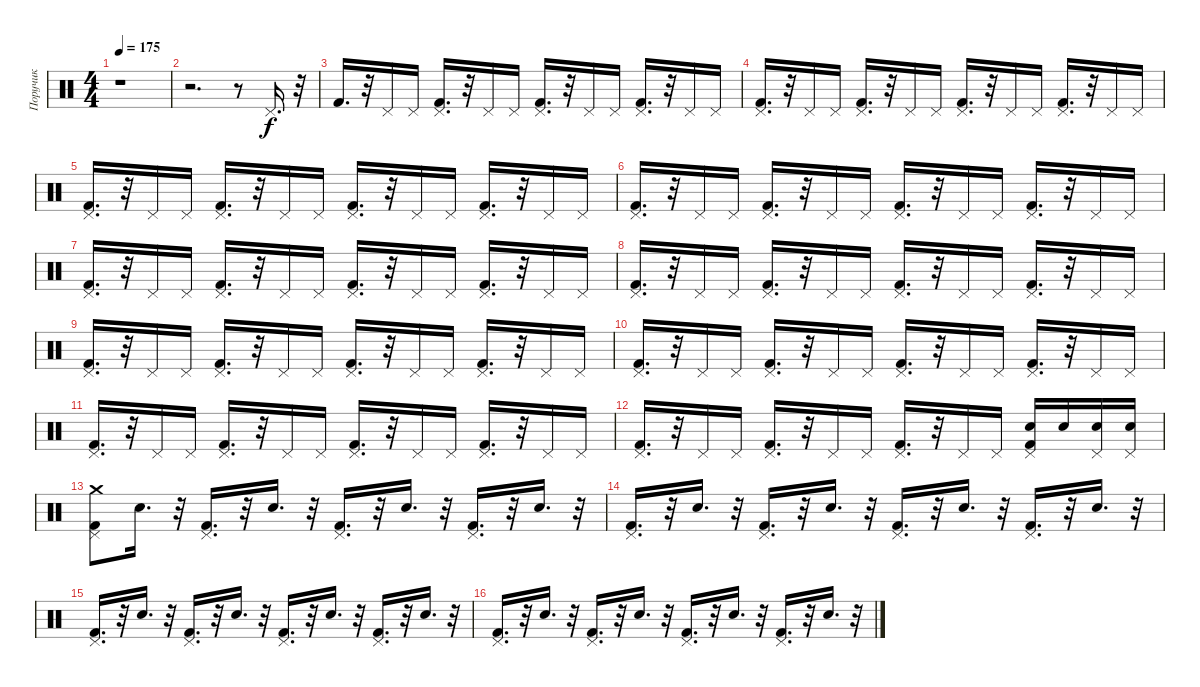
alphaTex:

\track ("Поручик" "Поручик") {instrument percussion}
\staff {score}
\articulation defaults
\ts (4 4)
\tempo 175
\clef neutral
\ks c
r.1{dy f} |
r.2{d} r.8 "Pedal Hi-Hat (hit)".16{d} r.32 |
"Kick (hit) 2".16{d} r.32 "Pedal Hi-Hat (hit)".16 "Pedal Hi-Hat (hit)".16 ("Pedal Hi-Hat (hit)" "Kick (hit) 2").16{d} r.32 "Pedal Hi-Hat (hit)".16 "Pedal Hi-Hat (hit)".16 ("Pedal Hi-Hat (hit)" "Kick (hit) 2").16{d} r.32 "Pedal Hi-Hat (hit)".16 "Pedal Hi-Hat (hit)".16 ("Pedal Hi-Hat (hit)" "Kick (hit) 2").16{d} r.32 "Pedal Hi-Hat (hit)".16 "Pedal Hi-Hat (hit)".16 |
("Pedal Hi-Hat (hit)" "Kick (hit) 2").16{d} r.32 "Pedal Hi-Hat (hit)".16 "Pedal Hi-Hat (hit)".16 ("Pedal Hi-Hat (hit)" "Kick (hit) 2").16{d} r.32 "Pedal Hi-Hat (hit)".16 "Pedal Hi-Hat (hit)".16 ("Pedal Hi-Hat (hit)" "Kick (hit) 2").16{d} r.32 "Pedal Hi-Hat (hit)".16 "Pedal Hi-Hat (hit)".16 ("Pedal Hi-Hat (hit)" "Kick (hit) 2").16{d} r.32 "Pedal Hi-Hat (hit)".16 "Pedal Hi-Hat (hit)".16 |
("Kick (hit) 2" "Pedal Hi-Hat (hit)").16{d} r.32 "Pedal Hi-Hat (hit)".16 "Pedal Hi-Hat (hit)".16 ("Pedal Hi-Hat (hit)" "Kick (hit) 2").16{d} r.32 "Pedal Hi-Hat (hit)".16 "Pedal Hi-Hat (hit)".16 ("Kick (hit) 2" "Pedal Hi-Hat (hit)").16{d} r.32 "Pedal Hi-Hat (hit)".16 "Pedal Hi-Hat (hit)".16 ("Pedal Hi-Hat (hit)" "Kick (hit) 2").16{d} r.32 "Pedal Hi-Hat (hit)".16 "Pedal Hi-Hat (hit)".16 |
("Kick (hit) 2" "Pedal Hi-Hat (hit)").16{d} r.32 "Pedal Hi-Hat (hit)".16 "Pedal Hi-Hat (hit)".16 ("Kick (hit) 2" "Pedal Hi-Hat (hit)").16{d} r.32 "Pedal Hi-Hat (hit)".16 "Pedal Hi-Hat (hit)".16 ("Kick (hit) 2" "Pedal Hi-Hat (hit)").16{d} r.32 "Pedal Hi-Hat (hit)".16 "Pedal Hi-Hat (hit)".16 ("Pedal Hi-Hat (hit)" "Kick (hit) 2").16{d} r.32 "Pedal Hi-Hat (hit)".16 "Pedal Hi-Hat (hit)".16 |
("Pedal Hi-Hat (hit)" "Kick (hit) 2").16{d} r.32 "Pedal Hi-Hat (hit)".16 "Pedal Hi-Hat (hit)".16 ("Kick (hit) 2" "Pedal Hi-Hat (hit)").16{d} r.32 "Pedal Hi-Hat (hit)".16 "Pedal Hi-Hat (hit)".16 ("Pedal Hi-Hat (hit)" "Kick (hit) 2").16{d} r.32 "Pedal Hi-Hat (hit)".16 "Pedal Hi-Hat (hit)".16 ("Pedal Hi-Hat (hit)" "Kick (hit) 2").16{d} r.32 "Pedal Hi-Hat (hit)".16 "Pedal Hi-Hat (hit)".16 |
("Pedal Hi-Hat (hit)" "Kick (hit) 2").16{d} r.32 "Pedal Hi-Hat (hit)".16 "Pedal Hi-Hat (hit)".16 ("Kick (hit) 2" "Pedal Hi-Hat (hit)").16{d} r.32 "Pedal Hi-Hat (hit)".16 "Pedal Hi-Hat (hit)".16 ("Pedal Hi-Hat (hit)" "Kick (hit) 2").16{d} r.32 "Pedal Hi-Hat (hit)".16 "Pedal Hi-Hat (hit)".16 ("Kick (hit) 2" "Pedal Hi-Hat (hit)").16{d} r.32 "Pedal Hi-Hat (hit)".16 "Pedal Hi-Hat (hit)".16 |
("Pedal Hi-Hat (hit)" "Kick (hit) 2").16{d} r.32 "Pedal Hi-Hat (hit)".16 "Pedal Hi-Hat (hit)".16 ("Kick (hit) 2" "Pedal Hi-Hat (hit)").16{d} r.32 "Pedal Hi-Hat (hit)".16 "Pedal Hi-Hat (hit)".16 ("Pedal Hi-Hat (hit)" "Kick (hit) 2").16{d} r.32 "Pedal Hi-Hat (hit)".16 "Pedal Hi-Hat (hit)".16 ("Pedal Hi-Hat (hit)" "Kick (hit) 2").16{d} r.32 "Pedal Hi-Hat (hit)".16 "Pedal Hi-Hat (hit)".16 |
("Pedal Hi-Hat (hit)" "Kick (hit) 2").16{d} r.32 "Pedal Hi-Hat (hit)".16 "Pedal Hi-Hat (hit)".16 ("Pedal Hi-Hat (hit)" "Kick (hit) 2").16{d} r.32 "Pedal Hi-Hat (hit)".16 "Pedal Hi-Hat (hit)".16 ("Pedal Hi-Hat (hit)" "Kick (hit) 2").16{d} r.32 "Pedal Hi-Hat (hit)".16 "Pedal Hi-Hat (hit)".16 ("Kick (hit) 2" "Pedal Hi-Hat (hit)").16{d} r.32 "Pedal Hi-Hat (hit)".16 "Pedal Hi-Hat (hit)".16 |
("Kick (hit) 2" "Pedal Hi-Hat (hit)").16{d} r.32 "Pedal Hi-Hat (hit)".16 "Pedal Hi-Hat (hit)".16 ("Pedal Hi-Hat (hit)" "Kick (hit) 2").16{d} r.32 "Pedal Hi-Hat (hit)".16 "Pedal Hi-Hat (hit)".16 ("Kick (hit) 2" "Pedal Hi-Hat (hit)").16{d} r.32 "Pedal Hi-Hat (hit)".16 "Pedal Hi-Hat (hit)".16 ("Pedal Hi-Hat (hit)" "Kick (hit) 2").16{d} r.32 "Pedal Hi-Hat (hit)".16 "Pedal Hi-Hat (hit)".16 |
("Kick (hit) 2" "Pedal Hi-Hat (hit)").16{d} r.32 "Pedal Hi-Hat (hit)".16 "Pedal Hi-Hat (hit)".16 ("Kick (hit) 2" "Pedal Hi-Hat (hit)").16{d} r.32 "Pedal Hi-Hat (hit)".16 "Pedal Hi-Hat (hit)".16 ("Kick (hit) 2" "Pedal Hi-Hat (hit)").16{d} r.32 "Pedal Hi-Hat (hit)".16 "Pedal Hi-Hat (hit)".16 ("Kick (hit) 2" "Snare (hit) 2" "Pedal Hi-Hat (hit)").16 "Snare (hit) 2".16 ("Snare (hit) 2" "Pedal Hi-Hat (hit)").16 ("Pedal Hi-Hat (hit)" "Snare (hit) 2").16 |
("Crash medium (hit)" "Pedal Hi-Hat (hit)" "Kick (hit) 2").8 "Snare (hit) 2".16{d} r.32 ("Kick (hit) 2" "Pedal Hi-Hat (hit)").16{d} r.32 "Snare (hit) 2".16{d} r.32 ("Kick (hit) 2" "Pedal Hi-Hat (hit)").16{d} r.32 "Snare (hit) 2".16{d} r.32 ("Pedal Hi-Hat (hit)" "Kick (hit) 2").16{d} r.32 "Snare (hit) 2".16{d} r.32 |
("Pedal Hi-Hat (hit)" "Kick (hit) 2").16{d} r.32 "Snare (hit) 2".16{d} r.32 ("Pedal Hi-Hat (hit)" "Kick (hit) 2").16{d} r.32 "Snare (hit) 2".16{d} r.32 ("Pedal Hi-Hat (hit)" "Kick (hit) 2").16{d} r.32 "Snare (hit) 2".16{d} r.32 ("Pedal Hi-Hat (hit)" "Kick (hit) 2").16{d} r.32 "Snare (hit) 2".16{d} r.32 |
("Kick (hit) 2" "Pedal Hi-Hat (hit)").16{d} r.32 "Snare (hit) 2".16{d} r.32 ("Kick (hit) 2" "Pedal Hi-Hat (hit)").16{d} r.32 "Snare (hit) 2".16{d} r.32 ("Kick (hit) 2" "Pedal Hi-Hat (hit)").16{d} r.32 "Snare (hit) 2".16{d} r.32 ("Pedal Hi-Hat (hit)" "Kick (hit) 2").16{d} r.32 "Snare (hit) 2".16{d} r.32 |
("Kick (hit) 2" "Pedal Hi-Hat (hit)").16{d} r.32 "Snare (hit) 2".16{d} r.32 ("Kick (hit) 2" "Pedal Hi-Hat (hit)").16{d} r.32 "Snare (hit) 2".16{d} r.32 ("Pedal Hi-Hat (hit)" "Kick (hit) 2").16{d} r.32 "Snare (hit) 2".16{d} r.32 ("Pedal Hi-Hat (hit)" "Kick (hit) 2").16{d} r.32 "Snare (hit) 2".16{d} r.32
